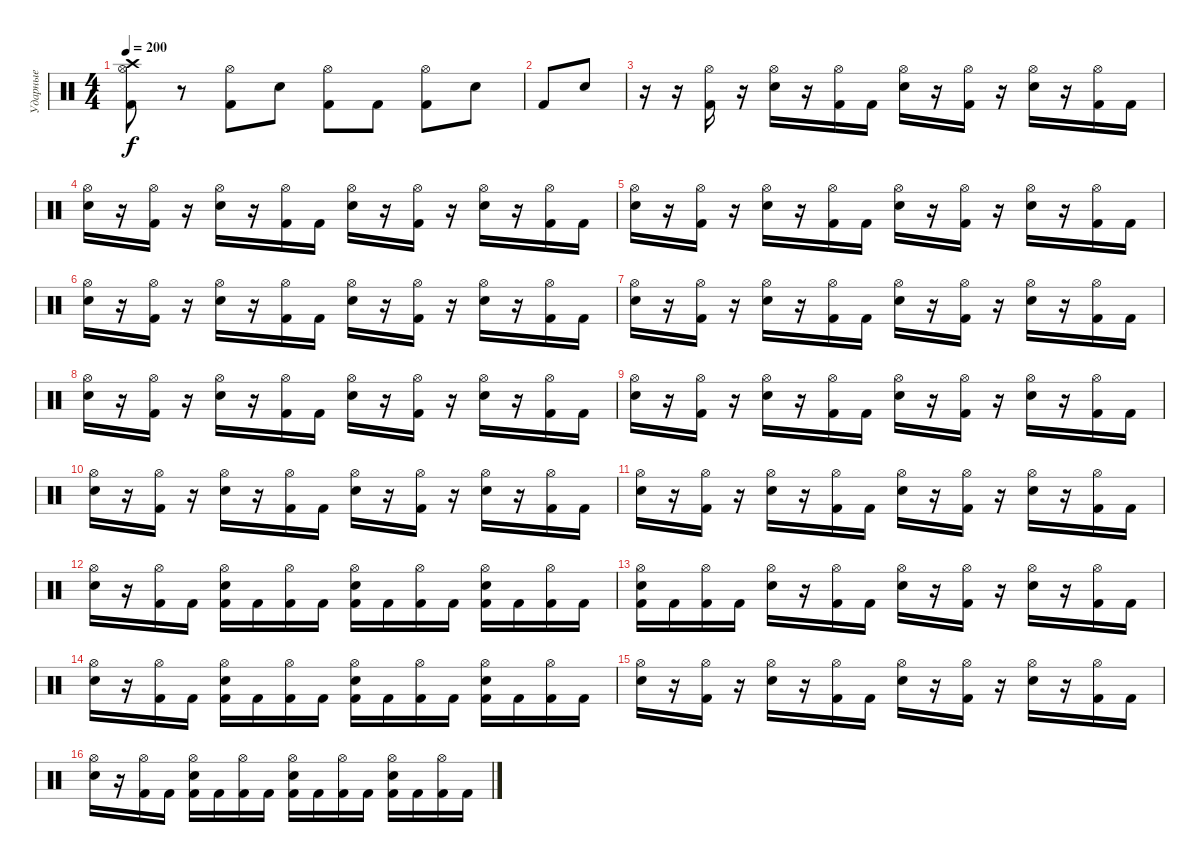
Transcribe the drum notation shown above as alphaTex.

\track ("Ударные" "Ударные") {instrument percussion}
\staff {score}
\articulation defaults
\ts (4 4)
\tempo 200
\clef neutral
\ks c
("Kick (hit) 2" "Hi-Hat (open)" "Crash high (hit)").8{dy f} r.8 ("Kick (hit) 2" "Hi-Hat (open)").8 "Electric Snare (hit)".8 ("Kick (hit) 2" "Hi-Hat (open)").8 "Kick (hit) 2".8 ("Kick (hit) 2" "Hi-Hat (open)").8 "Electric Snare (hit)".8 |
"Kick (hit) 2".8 "Electric Snare (hit)".8 |
r.16 r.16 ("Kick (hit) 2" "Hi-Hat (open)").16 r.16 ("Electric Snare (hit)" "Hi-Hat (open)").16 r.16 ("Kick (hit) 2" "Hi-Hat (open)").16 "Kick (hit) 2".16 ("Electric Snare (hit)" "Hi-Hat (open)").16 r.16 ("Kick (hit) 2" "Hi-Hat (open)").16 r.16 ("Electric Snare (hit)" "Hi-Hat (open)").16 r.16 ("Kick (hit) 2" "Hi-Hat (open)").16 "Kick (hit) 2".16 |
("Electric Snare (hit)" "Hi-Hat (open)").16 r.16 ("Kick (hit) 2" "Hi-Hat (open)").16 r.16 ("Electric Snare (hit)" "Hi-Hat (open)").16 r.16 ("Kick (hit) 2" "Hi-Hat (open)").16 "Kick (hit) 2".16 ("Electric Snare (hit)" "Hi-Hat (open)").16 r.16 ("Kick (hit) 2" "Hi-Hat (open)").16 r.16 ("Electric Snare (hit)" "Hi-Hat (open)").16 r.16 ("Kick (hit) 2" "Hi-Hat (open)").16 "Kick (hit) 2".16 |
("Electric Snare (hit)" "Hi-Hat (open)").16 r.16 ("Kick (hit) 2" "Hi-Hat (open)").16 r.16 ("Electric Snare (hit)" "Hi-Hat (open)").16 r.16 ("Kick (hit) 2" "Hi-Hat (open)").16 "Kick (hit) 2".16 ("Electric Snare (hit)" "Hi-Hat (open)").16 r.16 ("Kick (hit) 2" "Hi-Hat (open)").16 r.16 ("Electric Snare (hit)" "Hi-Hat (open)").16 r.16 ("Kick (hit) 2" "Hi-Hat (open)").16 "Kick (hit) 2".16 |
("Electric Snare (hit)" "Hi-Hat (open)").16 r.16 ("Kick (hit) 2" "Hi-Hat (open)").16 r.16 ("Electric Snare (hit)" "Hi-Hat (open)").16 r.16 ("Kick (hit) 2" "Hi-Hat (open)").16 "Kick (hit) 2".16 ("Electric Snare (hit)" "Hi-Hat (open)").16 r.16 ("Kick (hit) 2" "Hi-Hat (open)").16 r.16 ("Electric Snare (hit)" "Hi-Hat (open)").16 r.16 ("Kick (hit) 2" "Hi-Hat (open)").16 "Kick (hit) 2".16 |
("Electric Snare (hit)" "Hi-Hat (open)").16 r.16 ("Kick (hit) 2" "Hi-Hat (open)").16 r.16 ("Electric Snare (hit)" "Hi-Hat (open)").16 r.16 ("Kick (hit) 2" "Hi-Hat (open)").16 "Kick (hit) 2".16 ("Electric Snare (hit)" "Hi-Hat (open)").16 r.16 ("Kick (hit) 2" "Hi-Hat (open)").16 r.16 ("Electric Snare (hit)" "Hi-Hat (open)").16 r.16 ("Kick (hit) 2" "Hi-Hat (open)").16 "Kick (hit) 2".16 |
("Electric Snare (hit)" "Hi-Hat (open)").16 r.16 ("Kick (hit) 2" "Hi-Hat (open)").16 r.16 ("Electric Snare (hit)" "Hi-Hat (open)").16 r.16 ("Kick (hit) 2" "Hi-Hat (open)").16 "Kick (hit) 2".16 ("Electric Snare (hit)" "Hi-Hat (open)").16 r.16 ("Kick (hit) 2" "Hi-Hat (open)").16 r.16 ("Electric Snare (hit)" "Hi-Hat (open)").16 r.16 ("Kick (hit) 2" "Hi-Hat (open)").16 "Kick (hit) 2".16 |
("Electric Snare (hit)" "Hi-Hat (open)").16 r.16 ("Kick (hit) 2" "Hi-Hat (open)").16 r.16 ("Electric Snare (hit)" "Hi-Hat (open)").16 r.16 ("Kick (hit) 2" "Hi-Hat (open)").16 "Kick (hit) 2".16 ("Electric Snare (hit)" "Hi-Hat (open)").16 r.16 ("Kick (hit) 2" "Hi-Hat (open)").16 r.16 ("Electric Snare (hit)" "Hi-Hat (open)").16 r.16 ("Kick (hit) 2" "Hi-Hat (open)").16 "Kick (hit) 2".16 |
("Electric Snare (hit)" "Hi-Hat (open)").16 r.16 ("Kick (hit) 2" "Hi-Hat (open)").16 r.16 ("Electric Snare (hit)" "Hi-Hat (open)").16 r.16 ("Kick (hit) 2" "Hi-Hat (open)").16 "Kick (hit) 2".16 ("Electric Snare (hit)" "Hi-Hat (open)").16 r.16 ("Kick (hit) 2" "Hi-Hat (open)").16 r.16 ("Electric Snare (hit)" "Hi-Hat (open)").16 r.16 ("Kick (hit) 2" "Hi-Hat (open)").16 "Kick (hit) 2".16 |
("Electric Snare (hit)" "Hi-Hat (open)").16 r.16 ("Kick (hit) 2" "Hi-Hat (open)").16 r.16 ("Electric Snare (hit)" "Hi-Hat (open)").16 r.16 ("Kick (hit) 2" "Hi-Hat (open)").16 "Kick (hit) 2".16 ("Electric Snare (hit)" "Hi-Hat (open)").16 r.16 ("Kick (hit) 2" "Hi-Hat (open)").16 r.16 ("Electric Snare (hit)" "Hi-Hat (open)").16 r.16 ("Kick (hit) 2" "Hi-Hat (open)").16 "Kick (hit) 2".16 |
("Electric Snare (hit)" "Hi-Hat (open)").16 r.16 ("Kick (hit) 2" "Hi-Hat (open)").16 "Kick (hit) 2".16 ("Electric Snare (hit)" "Kick (hit) 2" "Hi-Hat (open)").16 "Kick (hit) 2".16 ("Kick (hit) 2" "Hi-Hat (open)").16 "Kick (hit) 2".16 ("Electric Snare (hit)" "Kick (hit) 2" "Hi-Hat (open)").16 "Kick (hit) 2".16 ("Kick (hit) 2" "Hi-Hat (open)").16 "Kick (hit) 2".16 ("Electric Snare (hit)" "Kick (hit) 2" "Hi-Hat (open)").16 "Kick (hit) 2".16 ("Kick (hit) 2" "Hi-Hat (open)").16 "Kick (hit) 2".16 |
("Electric Snare (hit)" "Hi-Hat (open)" "Kick (hit) 2").16 "Kick (hit) 2".16 ("Kick (hit) 2" "Hi-Hat (open)").16 "Kick (hit) 2".16 ("Electric Snare (hit)" "Hi-Hat (open)").16 r.16 ("Kick (hit) 2" "Hi-Hat (open)").16 "Kick (hit) 2".16 ("Electric Snare (hit)" "Hi-Hat (open)").16 r.16 ("Kick (hit) 2" "Hi-Hat (open)").16 r.16 ("Electric Snare (hit)" "Hi-Hat (open)").16 r.16 ("Kick (hit) 2" "Hi-Hat (open)").16 "Kick (hit) 2".16 |
("Electric Snare (hit)" "Hi-Hat (open)").16 r.16 ("Kick (hit) 2" "Hi-Hat (open)").16 "Kick (hit) 2".16 ("Electric Snare (hit)" "Kick (hit) 2" "Hi-Hat (open)").16 "Kick (hit) 2".16 ("Kick (hit) 2" "Hi-Hat (open)").16 "Kick (hit) 2".16 ("Electric Snare (hit)" "Kick (hit) 2" "Hi-Hat (open)").16 "Kick (hit) 2".16 ("Kick (hit) 2" "Hi-Hat (open)").16 "Kick (hit) 2".16 ("Electric Snare (hit)" "Kick (hit) 2" "Hi-Hat (open)").16 "Kick (hit) 2".16 ("Kick (hit) 2" "Hi-Hat (open)").16 "Kick (hit) 2".16 |
("Electric Snare (hit)" "Hi-Hat (open)").16 r.16 ("Kick (hit) 2" "Hi-Hat (open)").16 r.16 ("Electric Snare (hit)" "Hi-Hat (open)").16 r.16 ("Kick (hit) 2" "Hi-Hat (open)").16 "Kick (hit) 2".16 ("Electric Snare (hit)" "Hi-Hat (open)").16 r.16 ("Kick (hit) 2" "Hi-Hat (open)").16 r.16 ("Electric Snare (hit)" "Hi-Hat (open)").16 r.16 ("Kick (hit) 2" "Hi-Hat (open)").16 "Kick (hit) 2".16 |
("Electric Snare (hit)" "Hi-Hat (open)").16 r.16 ("Kick (hit) 2" "Hi-Hat (open)").16 "Kick (hit) 2".16 ("Electric Snare (hit)" "Kick (hit) 2" "Hi-Hat (open)").16 "Kick (hit) 2".16 ("Kick (hit) 2" "Hi-Hat (open)").16 "Kick (hit) 2".16 ("Electric Snare (hit)" "Kick (hit) 2" "Hi-Hat (open)").16 "Kick (hit) 2".16 ("Kick (hit) 2" "Hi-Hat (open)").16 "Kick (hit) 2".16 ("Electric Snare (hit)" "Kick (hit) 2" "Hi-Hat (open)").16 "Kick (hit) 2".16 ("Kick (hit) 2" "Hi-Hat (open)").16 "Kick (hit) 2".16
